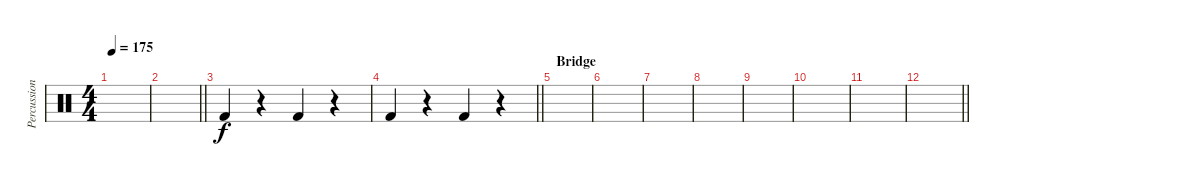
\track ("Percussion" "Percussion") {instrument percussion}
\staff {score}
\articulation defaults
\ts (4 4)
\tempo 175
\clef neutral
\ks c
|
\barLineRight lightlight
|
"Kick (hit) 2".4 r.4 "Kick (hit) 2".4 r.4 |
\barLineRight lightlight "Kick (hit) 2".4
r.4 "Kick (hit) 2".4 r.4 |
\section ("" "Bridge")
|
|
|
|
|
|
|
\barLineRight lightlight
